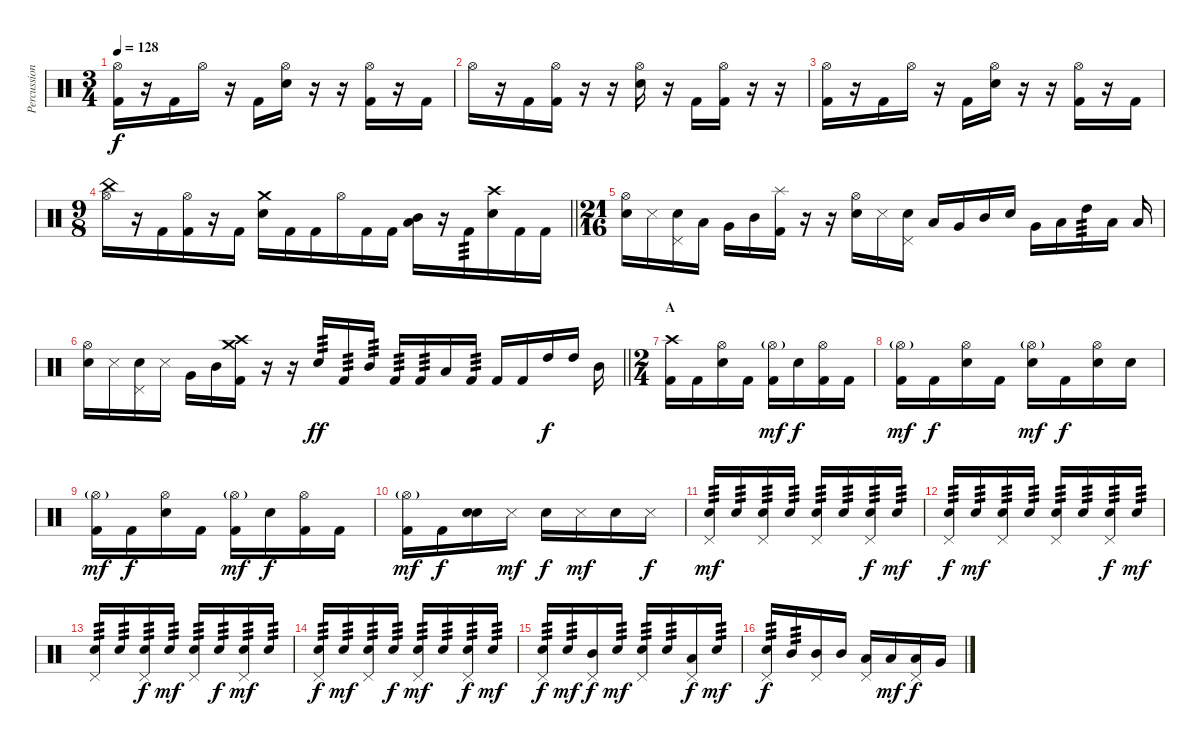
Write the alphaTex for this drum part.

\track ("Percussion" "Percussion") {instrument percussion}
\staff {score}
\articulation defaults
\ts (3 4)
\tempo 128
\clef neutral
\ks c
("Hi-Hat (open)" "Kick (hit) 2").16{dy f} r.16 "Kick (hit) 2".16 "Hi-Hat (open)".16 r.16 "Kick (hit) 2".16 ("Hi-Hat (open)" "Snare (hit) 2").16 r.16 r.16 ("Hi-Hat (open)" "Kick (hit) 2").16 r.16 "Kick (hit) 2".16 |
"Hi-Hat (open)".16 r.16 "Kick (hit) 2".16 ("Hi-Hat (open)" "Kick (hit) 2").16 r.16 r.16 ("Hi-Hat (open)" "Snare (hit) 2").16 r.16 "Kick (hit) 2".16 ("Hi-Hat (open)" "Kick (hit) 2").16 r.16 r.16 |
("Hi-Hat (open)" "Kick (hit) 2").16 r.16 "Kick (hit) 2".16 "Hi-Hat (open)".16 r.16 "Kick (hit) 2".16 ("Hi-Hat (open)" "Snare (hit) 2").16 r.16 r.16 ("Hi-Hat (open)" "Kick (hit) 2").16 r.16 "Kick (hit) 2".16 |
\ts (9 8)
\barLineRight lightlight
("China (hit)" "Hi-Hat (open)").16 r.16 "Kick (hit) 2".16 ("Hi-Hat (open)" "Kick (hit) 2").16 r.16 "Kick (hit) 2".16 ("Crash medium (hit)" "Snare (hit) 2").16 "Kick (hit) 2".16 "Kick (hit) 2".16 "Hi-Hat (open)".16 "Kick (hit) 2".16 "Kick (hit) 2".16 ("Mid Tom (hit)" "Low Tom (hit)").16{bu 60} r.16 "Kick (hit) 2".16{tp 3} ("Crash high (hit)" "Snare (hit) 2").16 "Kick (hit) 2".16 "Kick (hit) 2".16 |
\ts (21 16)
("Hi-Hat (open)" "Snare (hit) 2").16 "Metronome (hit)".16 ("Pedal Hi-Hat (hit)" "Snare (hit) 2").16 "Low Tom (hit)".16 "Very Low Tom (hit)".16 "Mid Tom (hit)".16 ("Splash (hit)" "Kick (hit) 2").16 r.16 r.16 ("Hi-Hat (open)" "Snare (hit) 2").16 "Metronome (hit)".16 ("Pedal Hi-Hat (hit)" "Snare (hit) 2").16 "Low Tom (hit)".16 "Very Low Tom (hit)".16 "Mid Tom (hit)".16 "Snare (hit) 2".16 "Very Low Tom (hit)".16 "Low Floor Tom (hit)".16 "High Tom (hit)".16{tp 3} "Low Tom (hit)".16 "Low Floor Tom (hit)".16 |
\barLineRight lightlight
("Hi-Hat (open)" "Snare (hit) 2").16 "Metronome (hit)".16 ("Pedal Hi-Hat (hit)" "Snare (hit) 2").16 "Metronome (hit)".16 "Very Low Tom (hit)".16 "Mid Tom (hit)".16 ("Crash medium (hit)" "Crash high (hit)" "Kick (hit) 2").16 r.16 r.16 "Snare (hit) 2".16{tp 3 dy ff} "Kick (hit) 2".16{tp 3} "Mid Tom (hit)".16{tp 3} "Kick (hit) 2".16{tp 3} "Kick (hit) 2".16{tp 3} "Low Tom (hit)".16 "Kick (hit) 2".16{tp 3} "Kick (hit) 2".16 "Kick (hit) 2".16 "High Tom (hit)".16{dy f} "High Tom (hit)".16 "Mid Tom (hit)".16 |
\ts (2 4)
\section ("" "A")
("Crash high (hit)" "Kick (hit) 2").16 "Kick (hit) 2".16 ("Hi-Hat (open)" "Snare (hit) 2").16 "Kick (hit) 2".16 ("Hi-Hat (open)"{g} "Kick (hit) 2").16{dy mf} "Snare (hit) 2".16{dy f} ("Hi-Hat (open)" "Kick (hit) 2").16 "Kick (hit) 2".16 |
("Hi-Hat (open)"{g} "Kick (hit) 2").16{dy mf} "Kick (hit) 2".16{dy f} ("Hi-Hat (open)" "Snare (hit) 2").16 "Kick (hit) 2".16 ("Hi-Hat (open)"{g} "Snare (hit) 2").16{dy mf} "Kick (hit) 2".16{dy f} ("Hi-Hat (open)" "Snare (hit) 2").16 "Snare (hit) 2".16 |
("Hi-Hat (open)"{g} "Kick (hit) 2").16{dy mf} "Kick (hit) 2".16{dy f} ("Hi-Hat (open)" "Snare (hit) 2").16 "Kick (hit) 2".16 ("Hi-Hat (open)"{g} "Kick (hit) 2").16{dy mf} "Snare (hit) 2".16{dy f} ("Hi-Hat (open)" "Kick (hit) 2").16 "Kick (hit) 2".16 |
("Hi-Hat (open)"{g} "Kick (hit) 2").16{dy mf} "Kick (hit) 2".16{dy f} ("Snare (hit)" "Snare (hit) 2").16 "Metronome (hit)".16{dy mf} "Snare (hit) 2".16{dy f} "Metronome (hit)".16{dy mf} "Snare (hit) 2".16 "Metronome (hit)".16{dy f} |
("Pedal Hi-Hat (hit)" "Snare (hit) 2").16{tp 3 dy mf} "Snare (hit) 2".16{tp 3} ("Pedal Hi-Hat (hit)" "Snare (hit) 2").16{tp 3} "Snare (hit) 2".16{tp 3} ("Pedal Hi-Hat (hit)" "Snare (hit) 2").16{tp 3} "Snare (hit) 2".16{tp 3} ("Pedal Hi-Hat (hit)" "Snare (hit) 2").16{tp 3 dy f} "Snare (hit) 2".16{tp 3 dy mf} |
("Pedal Hi-Hat (hit)" "Snare (hit) 2").16{tp 3 dy f} "Snare (hit) 2".16{tp 3 dy mf} ("Pedal Hi-Hat (hit)" "Snare (hit) 2").16{tp 3} "Snare (hit) 2".16{tp 3} ("Pedal Hi-Hat (hit)" "Snare (hit) 2").16{tp 3} "Snare (hit) 2".16{tp 3} ("Pedal Hi-Hat (hit)" "Snare (hit) 2").16{tp 3 dy f} "Snare (hit) 2".16{tp 3 dy mf} |
("Pedal Hi-Hat (hit)" "Snare (hit) 2").16{tp 3} "Snare (hit) 2".16{tp 3} ("Pedal Hi-Hat (hit)" "Snare (hit) 2").16{tp 3 dy f} "Snare (hit) 2".16{tp 3 dy mf} ("Pedal Hi-Hat (hit)" "Snare (hit) 2").16{tp 3} "Snare (hit) 2".16{tp 3 dy f} ("Pedal Hi-Hat (hit)" "Snare (hit) 2").16{tp 3 dy mf} "Snare (hit) 2".16{tp 3} |
("Pedal Hi-Hat (hit)" "Snare (hit) 2").16{tp 3 dy f} "Snare (hit) 2".16{tp 3 dy mf} ("Pedal Hi-Hat (hit)" "Snare (hit) 2").16{tp 3} "Snare (hit) 2".16{tp 3 dy f} ("Pedal Hi-Hat (hit)" "Snare (hit) 2").16{tp 3 dy mf} "Snare (hit) 2".16{tp 3} ("Pedal Hi-Hat (hit)" "Snare (hit) 2").16{tp 3 dy f} "Snare (hit) 2".16{tp 3 dy mf} |
("Pedal Hi-Hat (hit)" "Snare (hit) 2").16{tp 3 dy f} "Snare (hit) 2".16{tp 3 dy mf} ("Pedal Hi-Hat (hit)" "Mid Tom (hit)").16{dy f} "Snare (hit) 2".16{tp 3 dy mf} ("Pedal Hi-Hat (hit)" "Snare (hit) 2").16{tp 3} "Snare (hit) 2".16{tp 3} ("Pedal Hi-Hat (hit)" "Low Tom (hit)").16{dy f} "Snare (hit) 2".16{tp 3 dy mf} |
("Pedal Hi-Hat (hit)" "Snare (hit) 2").16{tp 3 dy f} "Mid Tom (hit)".16{tp 3} ("Pedal Hi-Hat (hit)" "Mid Tom (hit)").16 "Mid Tom (hit)".16 ("Pedal Hi-Hat (hit)" "Low Tom (hit)").16 "Low Tom (hit)".16{dy mf} ("Pedal Hi-Hat (hit)" "Low Tom (hit)").16{dy f} "Very Low Tom (hit)".16
